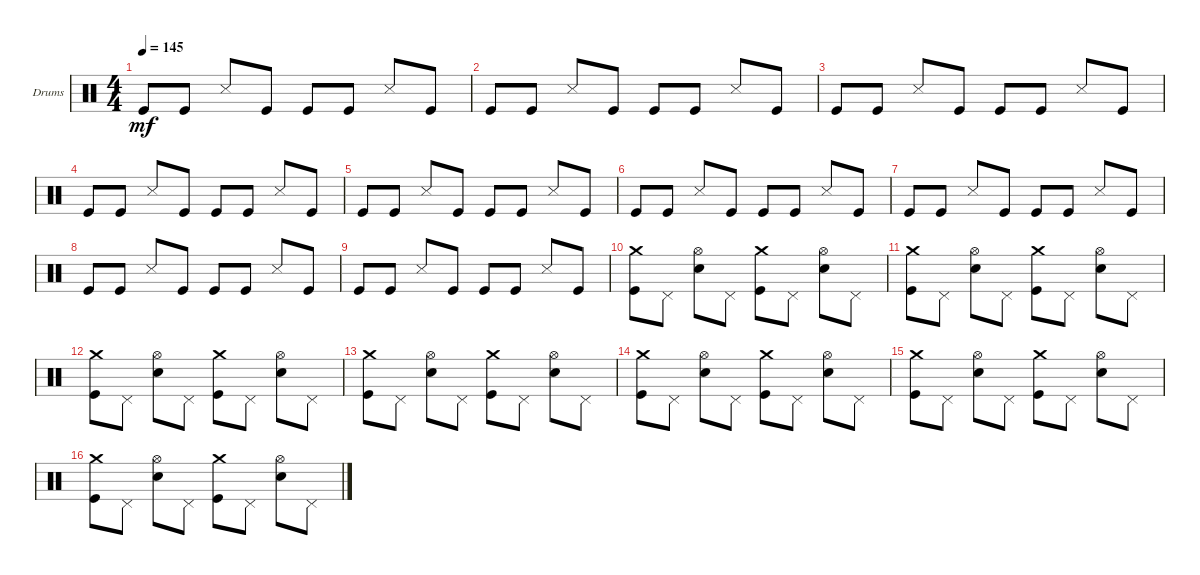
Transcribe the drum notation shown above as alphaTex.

\defaultSystemsLayout 4
\bracketExtendMode groupsimilarinstruments
\firstSystemTrackNameOrientation horizontal
\otherSystemsTrackNameOrientation horizontal
\track ("Е. Кулаков" "Drums") {instrument percussion}
\staff {score}
\articulation defaults
\ts (4 4)
\tempo 145
\clef neutral
\ks c "Kick (hit)".8{dy mf} "Kick (hit)".8 "Snare (side stick) 3".8 "Kick (hit)".8 "Kick (hit)".8 "Kick (hit)".8 "Snare (side stick) 3".8 "Kick (hit)".8
|
"Kick (hit)".8 "Kick (hit)".8 "Snare (side stick) 3".8 "Kick (hit)".8 "Kick (hit)".8 "Kick (hit)".8 "Snare (side stick) 3".8 "Kick (hit)".8 |
"Kick (hit)".8 "Kick (hit)".8 "Snare (side stick) 3".8 "Kick (hit)".8 "Kick (hit)".8 "Kick (hit)".8 "Snare (side stick) 3".8 "Kick (hit)".8 |
"Kick (hit)".8 "Kick (hit)".8 "Snare (side stick) 3".8 "Kick (hit)".8 "Kick (hit)".8 "Kick (hit)".8 "Snare (side stick) 3".8 "Kick (hit)".8 |
"Kick (hit)".8 "Kick (hit)".8 "Snare (side stick) 3".8 "Kick (hit)".8 "Kick (hit)".8 "Kick (hit)".8 "Snare (side stick) 3".8 "Kick (hit)".8 |
"Kick (hit)".8 "Kick (hit)".8 "Snare (side stick) 3".8 "Kick (hit)".8 "Kick (hit)".8 "Kick (hit)".8 "Snare (side stick) 3".8 "Kick (hit)".8 |
"Kick (hit)".8 "Kick (hit)".8 "Snare (side stick) 3".8 "Kick (hit)".8 "Kick (hit)".8 "Kick (hit)".8 "Snare (side stick) 3".8 "Kick (hit)".8 |
"Kick (hit)".8 "Kick (hit)".8 "Snare (side stick) 3".8 "Kick (hit)".8 "Kick (hit)".8 "Kick (hit)".8 "Snare (side stick) 3".8 "Kick (hit)".8 |
"Kick (hit)".8 "Kick (hit)".8 "Snare (side stick) 3".8 "Kick (hit)".8 "Kick (hit)".8 "Kick (hit)".8 "Snare (side stick) 3".8 "Kick (hit)".8 |
("Kick (hit)" "Crash medium (hit)").8 "Pedal Hi-Hat (hit)".8 ("Snare (hit) 2" "Hi-Hat (open)").8 "Pedal Hi-Hat (hit)".8 ("Kick (hit)" "Crash medium (hit)").8 "Pedal Hi-Hat (hit)".8 ("Snare (hit) 2" "Hi-Hat (open)").8 "Pedal Hi-Hat (hit)".8 |
("Kick (hit)" "Crash medium (hit)").8 "Pedal Hi-Hat (hit)".8 ("Snare (hit) 2" "Hi-Hat (open)").8 "Pedal Hi-Hat (hit)".8 ("Kick (hit)" "Crash medium (hit)").8 "Pedal Hi-Hat (hit)".8 ("Snare (hit) 2" "Hi-Hat (open)").8 "Pedal Hi-Hat (hit)".8 |
("Kick (hit)" "Crash medium (hit)").8 "Pedal Hi-Hat (hit)".8 ("Snare (hit) 2" "Hi-Hat (open)").8 "Pedal Hi-Hat (hit)".8 ("Kick (hit)" "Crash medium (hit)").8 "Pedal Hi-Hat (hit)".8 ("Snare (hit) 2" "Hi-Hat (open)").8 "Pedal Hi-Hat (hit)".8 |
("Kick (hit)" "Crash medium (hit)").8 "Pedal Hi-Hat (hit)".8 ("Snare (hit) 2" "Hi-Hat (open)").8 "Pedal Hi-Hat (hit)".8 ("Kick (hit)" "Crash medium (hit)").8 "Pedal Hi-Hat (hit)".8 ("Snare (hit) 2" "Hi-Hat (open)").8 "Pedal Hi-Hat (hit)".8 |
("Kick (hit)" "Crash medium (hit)").8 "Pedal Hi-Hat (hit)".8 ("Snare (hit) 2" "Hi-Hat (open)").8 "Pedal Hi-Hat (hit)".8 ("Kick (hit)" "Crash medium (hit)").8 "Pedal Hi-Hat (hit)".8 ("Snare (hit) 2" "Hi-Hat (open)").8 "Pedal Hi-Hat (hit)".8 |
("Kick (hit)" "Crash medium (hit)").8 "Pedal Hi-Hat (hit)".8 ("Snare (hit) 2" "Hi-Hat (open)").8 "Pedal Hi-Hat (hit)".8 ("Kick (hit)" "Crash medium (hit)").8 "Pedal Hi-Hat (hit)".8 ("Snare (hit) 2" "Hi-Hat (open)").8 "Pedal Hi-Hat (hit)".8 |
("Kick (hit)" "Crash medium (hit)").8 "Pedal Hi-Hat (hit)".8 ("Snare (hit) 2" "Hi-Hat (open)").8 "Pedal Hi-Hat (hit)".8 ("Kick (hit)" "Crash medium (hit)").8 "Pedal Hi-Hat (hit)".8 ("Snare (hit) 2" "Hi-Hat (open)").8 "Pedal Hi-Hat (hit)".8
